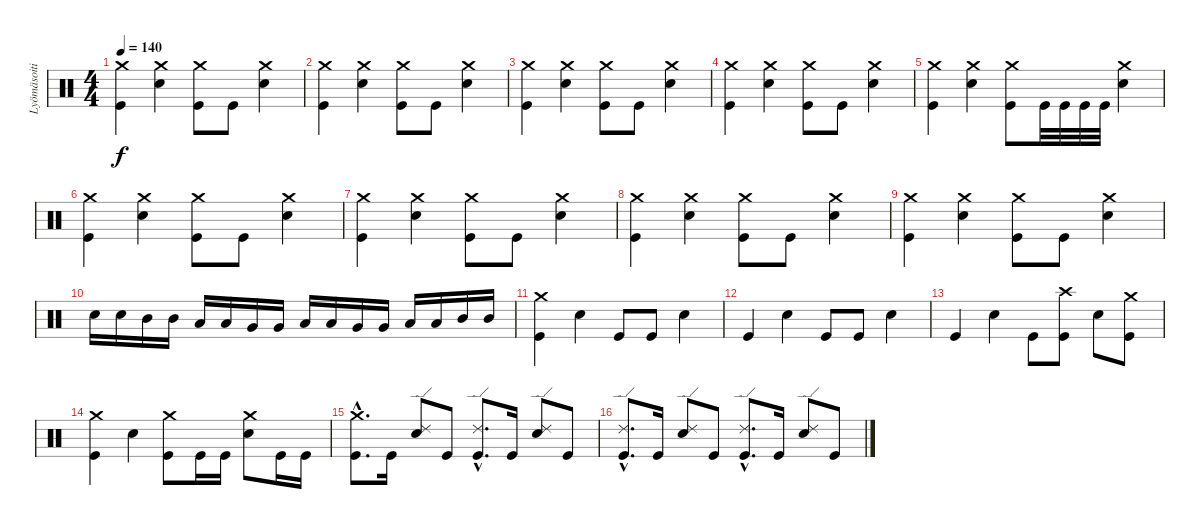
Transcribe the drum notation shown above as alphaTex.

\track ("Lyömäsoitin" "Lyömäsoiti") {instrument percussion}
\staff {score}
\articulation defaults
\ts (4 4)
\tempo 140
\clef neutral
\ks c
("Crash medium (hit)" "Kick (hit)").4{dy f} ("Crash medium (hit)" "Electric Snare (hit)").4 ("Crash medium (hit)" "Kick (hit)").8 "Kick (hit)".8 ("Crash medium (hit)" "Electric Snare (hit)").4 |
("Crash medium (hit)" "Kick (hit)").4 ("Crash medium (hit)" "Electric Snare (hit)").4 ("Crash medium (hit)" "Kick (hit)").8 "Kick (hit)".8 ("Crash medium (hit)" "Electric Snare (hit)").4 |
("Crash medium (hit)" "Kick (hit)").4 ("Crash medium (hit)" "Electric Snare (hit)").4 ("Crash medium (hit)" "Kick (hit)").8 "Kick (hit)".8 ("Crash medium (hit)" "Electric Snare (hit)").4 |
("Crash medium (hit)" "Kick (hit)").4 ("Crash medium (hit)" "Electric Snare (hit)").4 ("Crash medium (hit)" "Kick (hit)").8 "Kick (hit)".8 ("Crash medium (hit)" "Electric Snare (hit)").4 |
("Crash medium (hit)" "Kick (hit)").4 ("Crash medium (hit)" "Electric Snare (hit)").4 ("Crash medium (hit)" "Kick (hit)").8 "Kick (hit)".32 "Kick (hit)".32 "Kick (hit)".32 "Kick (hit)".32 ("Crash medium (hit)" "Electric Snare (hit)").4 |
("Crash medium (hit)" "Kick (hit)").4 ("Crash medium (hit)" "Electric Snare (hit)").4 ("Crash medium (hit)" "Kick (hit)").8 "Kick (hit)".8 ("Crash medium (hit)" "Electric Snare (hit)").4 |
("Crash medium (hit)" "Kick (hit)").4 ("Crash medium (hit)" "Electric Snare (hit)").4 ("Crash medium (hit)" "Kick (hit)").8 "Kick (hit)".8 ("Crash medium (hit)" "Electric Snare (hit)").4 |
("Crash medium (hit)" "Kick (hit)").4 ("Crash medium (hit)" "Electric Snare (hit)").4 ("Crash medium (hit)" "Kick (hit)").8 "Kick (hit)".8 ("Crash medium (hit)" "Electric Snare (hit)").4 |
("Crash medium (hit)" "Kick (hit)").4 ("Crash medium (hit)" "Electric Snare (hit)").4 ("Crash medium (hit)" "Kick (hit)").8 "Kick (hit)".8 ("Crash medium (hit)" "Electric Snare (hit)").4 |
"Electric Snare (hit)".16 "Electric Snare (hit)".16 "Mid Tom (hit)".16 "Mid Tom (hit)".16 "Low Tom (hit)".16 "Low Tom (hit)".16 "Very Low Tom (hit)".16 "Very Low Tom (hit)".16 "Low Floor Tom (hit)".16 "Low Floor Tom (hit)".16 "Very Low Tom (hit)".16 "Very Low Tom (hit)".16 "Low Tom (hit)".16 "Low Tom (hit)".16 "Mid Tom (hit)".16 "Mid Tom (hit)".16 |
("Crash medium (hit)" "Kick (hit)").4 "Electric Snare (hit)".4 "Kick (hit)".8 "Kick (hit)".8 "Electric Snare (hit)".4 |
"Kick (hit)".4 "Electric Snare (hit)".4 "Kick (hit)".8 "Kick (hit)".8 "Electric Snare (hit)".4 |
"Kick (hit)".4 "Electric Snare (hit)".4 "Kick (hit)".8 ("Crash high (hit)" "Kick (hit)").8 "Electric Snare (hit)".8 ("Crash medium (hit)" "Kick (hit)").8 |
("Crash medium (hit)" "Kick (hit)").4 "Electric Snare (hit)".4 ("Crash medium (hit)" "Kick (hit)").8 "Kick (hit)".16 "Kick (hit)".16 ("Crash medium (hit)" "Electric Snare (hit)").8 "Kick (hit)".16 "Kick (hit)".16 |
("Kick (hit)"{hac} "Crash medium (hit)"{hac}).8{d} "Kick (hit)".16 ("Electric Snare (hit)" "Ride (edge) 2").8 "Kick (hit)".8 ("Kick (hit)"{hac} "Ride (edge) 2"{hac}).8{d} "Kick (hit)".16 ("Electric Snare (hit)" "Ride (edge) 2").8 "Kick (hit)".8 |
("Kick (hit)"{hac} "Ride (edge) 2"{hac}).8{d} "Kick (hit)".16 ("Electric Snare (hit)" "Ride (edge) 2").8 "Kick (hit)".8 ("Kick (hit)"{hac} "Ride (edge) 2"{hac}).8{d} "Kick (hit)".16 ("Electric Snare (hit)" "Ride (edge) 2").8 "Kick (hit)".8
